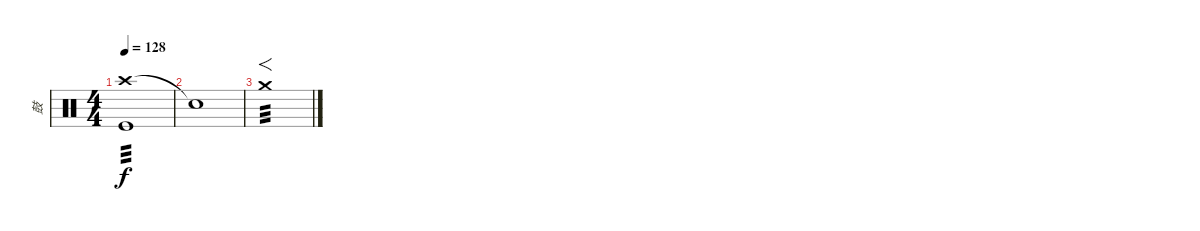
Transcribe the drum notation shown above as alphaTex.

\track ("鼓" "鼓") {instrument percussion}
\staff {score}
\articulation defaults
\ts (4 4)
\tempo 128
\clef neutral
\ks c
("Crash high (hit)" "Kick (hit)").1{tp 3 dy f} |
"Snare (hit)"{t}.1 |
"Crash medium (hit)".1{f tp 3}
